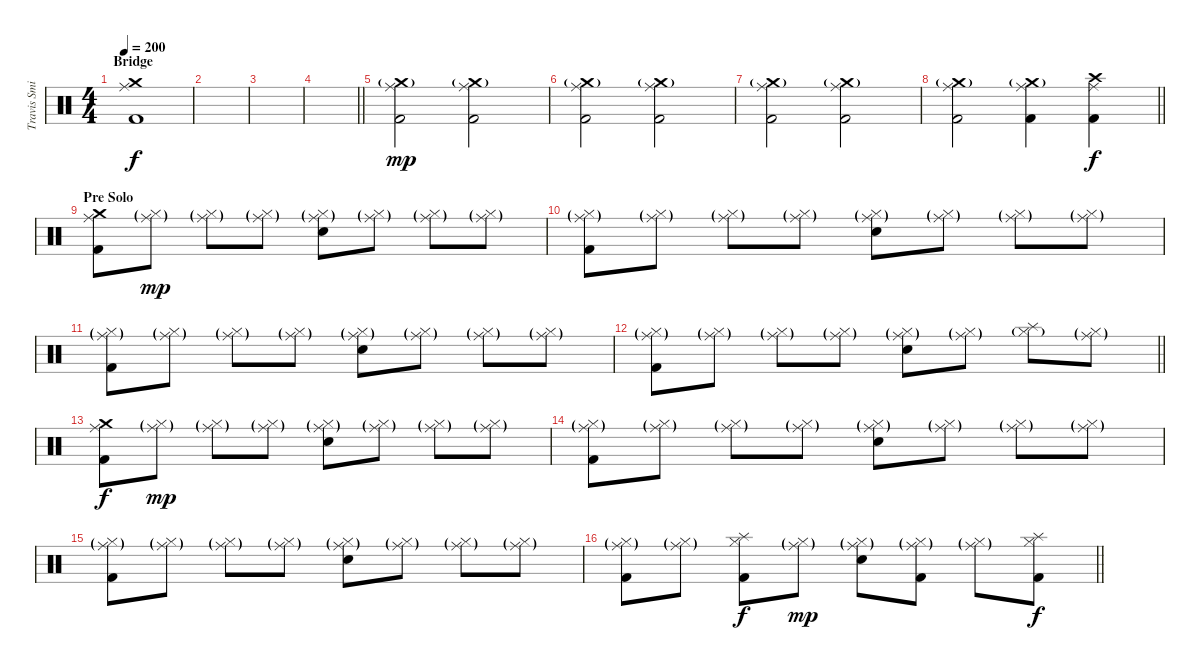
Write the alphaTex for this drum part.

\track ("Travis Smith" "Travis Smi") {instrument percussion}
\staff {score}
\articulation defaults
\ts (4 4)
\section ("" "Bridge")
\tempo 200
\clef neutral
\ks c
("Ride (middle)" "Crash medium (hit)" "Kick (hit) 2").1{dy f} |
|
|
\barLineRight lightlight
|
("Ride (middle)" "Crash medium (hit)"{g} "Kick (hit) 2").2{dy mp} ("Ride (middle)" "Crash medium (hit)"{g} "Kick (hit) 2").2 |
("Ride (middle)" "Crash medium (hit)"{g} "Kick (hit) 2").2 ("Ride (middle)" "Crash medium (hit)"{g} "Kick (hit) 2").2 |
("Ride (middle)" "Crash medium (hit)"{g} "Kick (hit) 2").2 ("Ride (middle)" "Crash medium (hit)"{g} "Kick (hit) 2").2 |
\barLineRight lightlight
("Ride (middle)" "Crash medium (hit)"{g} "Kick (hit) 2").2 ("Ride (middle)" "Crash medium (hit)"{g} "Kick (hit) 2").4 ("Ride (middle)" "Crash high (hit)" "Kick (hit) 2").4{dy f} |
\section ("" "Pre Solo")
("Crash medium (hit)" "Ride (middle)" "Kick (hit) 2").8 ("Ride (middle)"{g} "Hi-Hat (closed)"{g}).8{dy mp} ("Ride (middle)"{g} "Hi-Hat (closed)"{g}).8 ("Ride (middle)"{g} "Hi-Hat (closed)"{g}).8 ("Ride (middle)"{g} "Hi-Hat (closed)"{g} "Electric Snare (hit)").8 ("Ride (middle)"{g} "Hi-Hat (closed)"{g}).8 ("Ride (middle)"{g} "Hi-Hat (closed)"{g}).8 ("Ride (middle)"{g} "Hi-Hat (closed)"{g}).8 |
("Ride (middle)"{g} "Hi-Hat (closed)"{g} "Kick (hit) 2").8 ("Ride (middle)"{g} "Hi-Hat (closed)"{g}).8 ("Ride (middle)"{g} "Hi-Hat (closed)"{g}).8 ("Ride (middle)"{g} "Hi-Hat (closed)"{g}).8 ("Ride (middle)"{g} "Hi-Hat (closed)"{g} "Electric Snare (hit)").8 ("Ride (middle)"{g} "Hi-Hat (closed)"{g}).8 ("Ride (middle)"{g} "Hi-Hat (closed)"{g}).8 ("Ride (middle)"{g} "Hi-Hat (closed)"{g}).8 |
("Ride (middle)"{g} "Hi-Hat (closed)"{g} "Kick (hit) 2").8 ("Ride (middle)"{g} "Hi-Hat (closed)"{g}).8 ("Ride (middle)"{g} "Hi-Hat (closed)"{g}).8 ("Ride (middle)"{g} "Hi-Hat (closed)"{g}).8 ("Ride (middle)"{g} "Hi-Hat (closed)"{g} "Electric Snare (hit)").8 ("Ride (middle)"{g} "Hi-Hat (closed)"{g}).8 ("Ride (middle)"{g} "Hi-Hat (closed)"{g}).8 ("Ride (middle)"{g} "Hi-Hat (closed)"{g}).8 |
\barLineRight lightlight
("Ride (middle)"{g} "Hi-Hat (closed)"{g} "Kick (hit) 2").8 ("Ride (middle)"{g} "Hi-Hat (closed)"{g}).8 ("Ride (middle)"{g} "Hi-Hat (closed)"{g}).8 ("Ride (middle)"{g} "Hi-Hat (closed)"{g}).8 ("Ride (middle)"{g} "Hi-Hat (closed)"{g} "Electric Snare (hit)").8 ("Ride (middle)"{g} "Hi-Hat (closed)"{g}).8 ("Splash (hit)" "Hi-Hat (closed)"{g}).8 ("Ride (middle)"{g} "Hi-Hat (closed)"{g}).8 |
("Crash medium (hit)" "Ride (middle)" "Kick (hit) 2").8{dy f} ("Ride (middle)"{g} "Hi-Hat (closed)"{g}).8{dy mp} ("Ride (middle)"{g} "Hi-Hat (closed)"{g}).8 ("Ride (middle)"{g} "Hi-Hat (closed)"{g}).8 ("Ride (middle)"{g} "Hi-Hat (closed)"{g} "Electric Snare (hit)").8 ("Ride (middle)"{g} "Hi-Hat (closed)"{g}).8 ("Ride (middle)"{g} "Hi-Hat (closed)"{g}).8 ("Ride (middle)"{g} "Hi-Hat (closed)"{g}).8 |
("Ride (middle)"{g} "Hi-Hat (closed)"{g} "Kick (hit) 2").8 ("Ride (middle)"{g} "Hi-Hat (closed)"{g}).8 ("Ride (middle)"{g} "Hi-Hat (closed)"{g}).8 ("Ride (middle)"{g} "Hi-Hat (closed)"{g}).8 ("Ride (middle)"{g} "Hi-Hat (closed)"{g} "Electric Snare (hit)").8 ("Ride (middle)"{g} "Hi-Hat (closed)"{g}).8 ("Ride (middle)"{g} "Hi-Hat (closed)"{g}).8 ("Ride (middle)"{g} "Hi-Hat (closed)"{g}).8 |
("Ride (middle)"{g} "Hi-Hat (closed)"{g} "Kick (hit) 2").8 ("Ride (middle)"{g} "Hi-Hat (closed)"{g}).8 ("Ride (middle)"{g} "Hi-Hat (closed)"{g}).8 ("Ride (middle)"{g} "Hi-Hat (closed)"{g}).8 ("Ride (middle)"{g} "Hi-Hat (closed)"{g} "Electric Snare (hit)").8 ("Ride (middle)"{g} "Hi-Hat (closed)"{g}).8 ("Ride (middle)"{g} "Hi-Hat (closed)"{g}).8 ("Ride (middle)"{g} "Hi-Hat (closed)"{g}).8 |
\barLineRight lightlight
("Ride (middle)"{g} "Hi-Hat (closed)"{g} "Kick (hit) 2").8 ("Ride (middle)"{g} "Hi-Hat (closed)"{g}).8 ("Splash (hit)" "Hi-Hat (closed)" "Kick (hit) 2").8{dy f} ("Ride (middle)"{g} "Hi-Hat (closed)"{g}).8{dy mp} ("Ride (middle)"{g} "Hi-Hat (closed)"{g} "Electric Snare (hit)").8 ("Ride (middle)"{g} "Hi-Hat (closed)"{g} "Kick (hit) 2").8 ("Ride (middle)"{g} "Hi-Hat (closed)"{g}).8 ("Splash (hit)" "Hi-Hat (closed)" "Kick (hit) 2").8{dy f}
